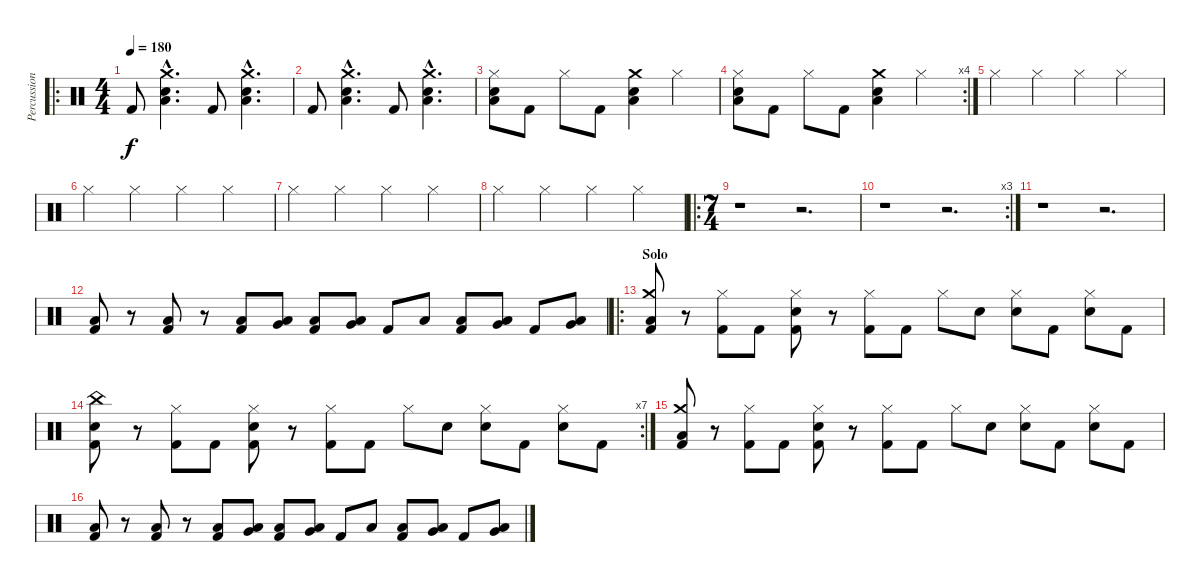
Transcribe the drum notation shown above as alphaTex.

\track ("Percussion" "Percussion") {instrument percussion}
\staff {score}
\articulation defaults
\ro
\ts (4 4)
\tempo 180
\clef neutral
\ks c "Kick (hit) 2".8{dy f}
("Crash medium (hit)"{hac} "Low Floor Tom (hit)"{hac} "Electric Snare (hit)"{hac}).4{d} "Kick (hit) 2".8 ("Crash medium (hit)"{hac} "Low Floor Tom (hit)"{hac} "Electric Snare (hit)"{hac}).4{d} |
"Kick (hit) 2".8 ("Crash medium (hit)"{hac} "Low Floor Tom (hit)"{hac} "Electric Snare (hit)"{hac}).4{d} "Kick (hit) 2".8 ("Crash medium (hit)"{hac} "Low Floor Tom (hit)"{hac} "Electric Snare (hit)"{hac}).4{d} |
("Hi-Hat (closed)" "Low Floor Tom (hit)" "Electric Snare (hit)").8 "Kick (hit) 2".8 "Hi-Hat (closed)".8 "Kick (hit) 2".8 ("Crash medium (hit)" "Low Floor Tom (hit)" "Electric Snare (hit)").4 "Hi-Hat (closed)".4 |
\rc 4
("Hi-Hat (closed)" "Low Floor Tom (hit)" "Electric Snare (hit)").8 "Kick (hit) 2".8 "Hi-Hat (closed)".8 "Kick (hit) 2".8 ("Crash medium (hit)" "Low Floor Tom (hit)" "Electric Snare (hit)").4 "Hi-Hat (closed)".4 |
"Hi-Hat (closed)".4 "Hi-Hat (closed)".4 "Hi-Hat (closed)".4 "Hi-Hat (closed)".4 |
"Hi-Hat (closed)".4 "Hi-Hat (closed)".4 "Hi-Hat (closed)".4 "Hi-Hat (closed)".4 |
"Hi-Hat (closed)".4 "Hi-Hat (closed)".4 "Hi-Hat (closed)".4 "Hi-Hat (closed)".4 |
"Hi-Hat (closed)".4 "Hi-Hat (closed)".4 "Hi-Hat (closed)".4 "Hi-Hat (closed)".4 |
\ro
\ts (7 4)
r.1 r.2{d} |
\rc 3
r.1 r.2{d} |
r.1 r.2{d} |
("Low Floor Tom (hit)" "Kick (hit) 2").8 r.8 ("Low Floor Tom (hit)" "Kick (hit) 2").8 r.8 ("Low Floor Tom (hit)" "Kick (hit) 2").8 ("Very Low Tom (hit)" "Low Floor Tom (hit)").8 ("Low Floor Tom (hit)" "Kick (hit) 2").8 ("Very Low Tom (hit)" "Low Floor Tom (hit)").8 "Kick (hit) 2".8 "Low Floor Tom (hit)".8 ("Low Floor Tom (hit)" "Kick (hit) 2").8 ("Very Low Tom (hit)" "Low Floor Tom (hit)").8 "Kick (hit) 2".8 ("Very Low Tom (hit)" "Low Floor Tom (hit)").8 |
\ro
\section ("" "Solo")
("Crash medium (hit)" "Low Floor Tom (hit)" "Kick (hit) 2").8 r.8 ("Hi-Hat (closed)" "Kick (hit) 2").8 "Kick (hit) 2".8 ("Hi-Hat (closed)" "Electric Snare (hit)" "Kick (hit) 2").8 r.8 ("Hi-Hat (closed)" "Kick (hit) 2").8 "Kick (hit) 2".8 "Hi-Hat (closed)".8 "Electric Snare (hit)".8 ("Hi-Hat (closed)" "Electric Snare (hit)").8 "Kick (hit) 2".8 ("Hi-Hat (closed)" "Electric Snare (hit)").8 "Kick (hit) 2".8 |
\rc 7
("China (hit)" "Electric Snare (hit)" "Kick (hit) 2").8 r.8 ("Hi-Hat (closed)" "Kick (hit) 2").8 "Kick (hit) 2".8 ("Hi-Hat (closed)" "Electric Snare (hit)" "Kick (hit) 2").8 r.8 ("Hi-Hat (closed)" "Kick (hit) 2").8 "Kick (hit) 2".8 "Hi-Hat (closed)".8 "Electric Snare (hit)".8 ("Hi-Hat (closed)" "Electric Snare (hit)").8 "Kick (hit) 2".8 ("Hi-Hat (closed)" "Electric Snare (hit)").8 "Kick (hit) 2".8 |
("Crash medium (hit)" "Low Floor Tom (hit)" "Kick (hit) 2").8 r.8 ("Hi-Hat (closed)" "Kick (hit) 2").8 "Kick (hit) 2".8 ("Hi-Hat (closed)" "Electric Snare (hit)" "Kick (hit) 2").8 r.8 ("Hi-Hat (closed)" "Kick (hit) 2").8 "Kick (hit) 2".8 "Hi-Hat (closed)".8 "Electric Snare (hit)".8 ("Hi-Hat (closed)" "Electric Snare (hit)").8 "Kick (hit) 2".8 ("Hi-Hat (closed)" "Electric Snare (hit)").8 "Kick (hit) 2".8 |
("Low Floor Tom (hit)" "Kick (hit) 2").8 r.8 ("Low Floor Tom (hit)" "Kick (hit) 2").8 r.8 ("Low Floor Tom (hit)" "Kick (hit) 2").8 ("Very Low Tom (hit)" "Low Floor Tom (hit)").8 ("Low Floor Tom (hit)" "Kick (hit) 2").8 ("Very Low Tom (hit)" "Low Floor Tom (hit)").8 "Kick (hit) 2".8 "Low Floor Tom (hit)".8 ("Low Floor Tom (hit)" "Kick (hit) 2").8 ("Very Low Tom (hit)" "Low Floor Tom (hit)").8 "Kick (hit) 2".8 ("Very Low Tom (hit)" "Low Floor Tom (hit)").8
